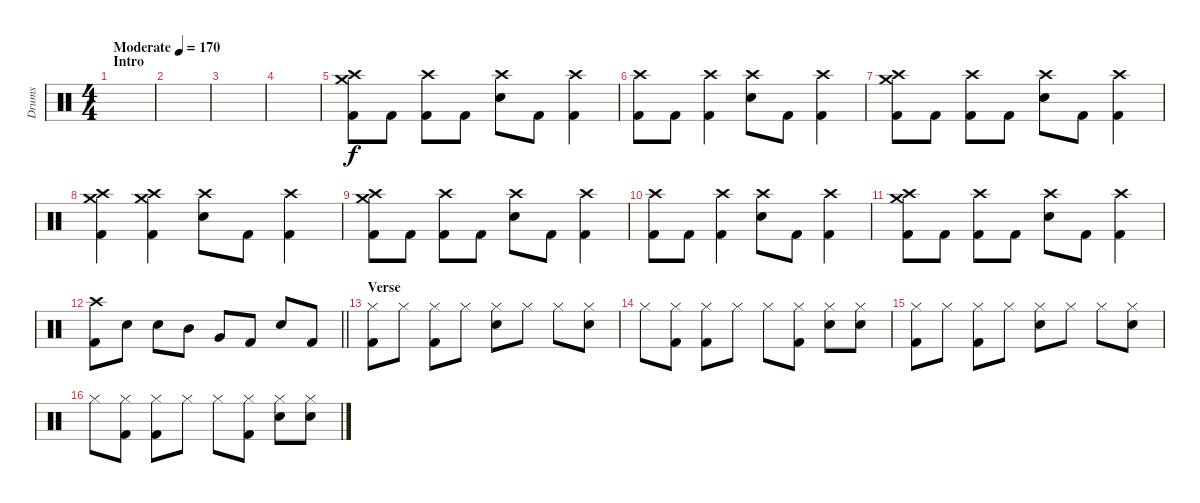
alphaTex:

\track ("Drums" "Drums") {instrument percussion}
\staff {score}
\articulation defaults
\ts (4 4)
\section ("" "Intro")
\tempo (170 "Moderate")
\clef neutral
\ks c
|
|
|
|
("Crash high (hit)" "Crash medium (hit)" "Kick (hit) 2").8 "Kick (hit) 2".8 ("Crash high (hit)" "Kick (hit) 2").8 "Kick (hit) 2".8 ("Crash high (hit)" "Electric Snare (hit)").8 "Kick (hit) 2".8 ("Crash high (hit)" "Kick (hit) 2").4 |
("Crash high (hit)" "Kick (hit) 2").8 "Kick (hit) 2".8 ("Crash high (hit)" "Kick (hit) 2").4 ("Crash high (hit)" "Electric Snare (hit)").8 "Kick (hit) 2".8 ("Crash high (hit)" "Kick (hit) 2").4 |
("Crash high (hit)" "Crash medium (hit)" "Kick (hit) 2").8 "Kick (hit) 2".8 ("Crash high (hit)" "Kick (hit) 2").8 "Kick (hit) 2".8 ("Crash high (hit)" "Electric Snare (hit)").8 "Kick (hit) 2".8 ("Crash high (hit)" "Kick (hit) 2").4 |
("Crash high (hit)" "Crash medium (hit)" "Kick (hit) 2").4 ("Crash high (hit)" "Crash medium (hit)" "Kick (hit) 2").4 ("Crash high (hit)" "Electric Snare (hit)").8 "Kick (hit) 2".8 ("Crash high (hit)" "Kick (hit) 2").4 |
("Crash high (hit)" "Crash medium (hit)" "Kick (hit) 2").8 "Kick (hit) 2".8 ("Crash high (hit)" "Kick (hit) 2").8 "Kick (hit) 2".8 ("Crash high (hit)" "Electric Snare (hit)").8 "Kick (hit) 2".8 ("Crash high (hit)" "Kick (hit) 2").4 |
("Crash high (hit)" "Kick (hit) 2").8 "Kick (hit) 2".8 ("Crash high (hit)" "Kick (hit) 2").4 ("Crash high (hit)" "Electric Snare (hit)").8 "Kick (hit) 2".8 ("Crash high (hit)" "Kick (hit) 2").4 |
("Crash high (hit)" "Crash medium (hit)" "Kick (hit) 2").8 "Kick (hit) 2".8 ("Crash high (hit)" "Kick (hit) 2").8 "Kick (hit) 2".8 ("Crash high (hit)" "Electric Snare (hit)").8 "Kick (hit) 2".8 ("Crash high (hit)" "Kick (hit) 2").4 |
\barLineRight lightlight
("Crash high (hit)" "Kick (hit) 2").8 "Electric Snare (hit)".8 "Electric Snare (hit)".8 "Mid Tom (hit)".8 "Very Low Tom (hit)".8 "Kick (hit) 2".8 "Electric Snare (hit)".8 "Kick (hit) 2".8 |
\section ("" "Verse")
("Hi-Hat (closed)" "Kick (hit) 2").8 "Hi-Hat (closed)".8 ("Hi-Hat (closed)" "Kick (hit) 2").8 "Hi-Hat (closed)".8 ("Hi-Hat (closed)" "Electric Snare (hit)").8 "Hi-Hat (closed)".8 "Hi-Hat (closed)".8 ("Hi-Hat (closed)" "Electric Snare (hit)").8 |
"Hi-Hat (closed)".8 ("Hi-Hat (closed)" "Kick (hit) 2").8 ("Hi-Hat (closed)" "Kick (hit) 2").8 "Hi-Hat (closed)".8 "Hi-Hat (closed)".8 ("Hi-Hat (closed)" "Kick (hit) 2").8 ("Hi-Hat (closed)" "Electric Snare (hit)").8 ("Hi-Hat (closed)" "Electric Snare (hit)").8 |
("Hi-Hat (closed)" "Kick (hit) 2").8 "Hi-Hat (closed)".8 ("Hi-Hat (closed)" "Kick (hit) 2").8 "Hi-Hat (closed)".8 ("Hi-Hat (closed)" "Electric Snare (hit)").8 "Hi-Hat (closed)".8 "Hi-Hat (closed)".8 ("Hi-Hat (closed)" "Electric Snare (hit)").8 |
"Hi-Hat (closed)".8 ("Hi-Hat (closed)" "Kick (hit) 2").8 ("Hi-Hat (closed)" "Kick (hit) 2").8 "Hi-Hat (closed)".8 "Hi-Hat (closed)".8 ("Hi-Hat (closed)" "Kick (hit) 2").8 ("Hi-Hat (closed)" "Electric Snare (hit)").8 ("Hi-Hat (closed)" "Electric Snare (hit)").8
